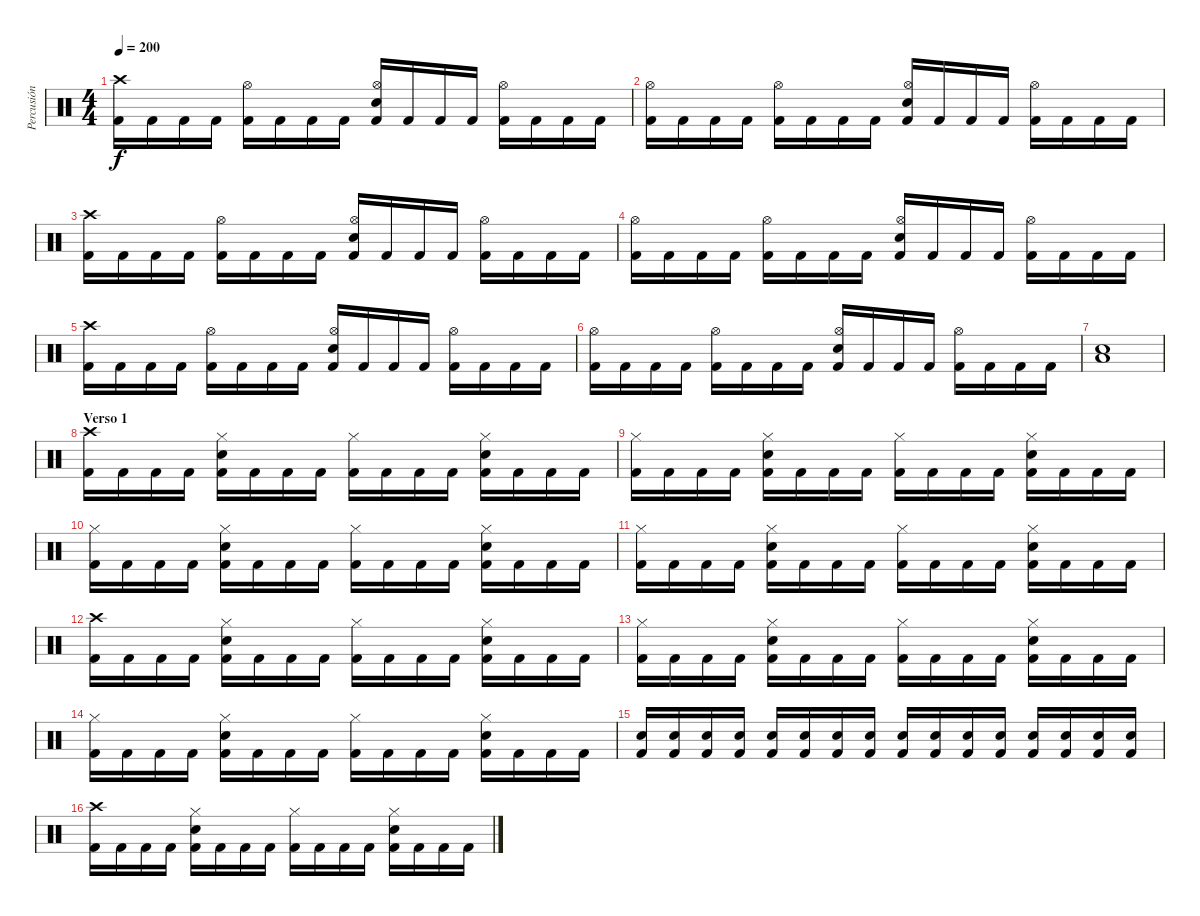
\track ("Percusión" "Percusión") {instrument percussion}
\staff {score}
\articulation defaults
\ts (4 4)
\tempo 200
\clef neutral
\ks c
("Kick (hit) 2" "Crash high (hit)").16{dy f} "Kick (hit) 2".16 "Kick (hit) 2".16 "Kick (hit) 2".16 ("Kick (hit) 2" "Hi-Hat (open)").16 "Kick (hit) 2".16 "Kick (hit) 2".16 "Kick (hit) 2".16 ("Kick (hit) 2" "Hi-Hat (open)" "Snare (hit) 2").16 "Kick (hit) 2".16 "Kick (hit) 2".16 "Kick (hit) 2".16 ("Kick (hit) 2" "Hi-Hat (open)").16 "Kick (hit) 2".16 "Kick (hit) 2".16 "Kick (hit) 2".16 |
("Kick (hit) 2" "Hi-Hat (open)").16 "Kick (hit) 2".16 "Kick (hit) 2".16 "Kick (hit) 2".16 ("Kick (hit) 2" "Hi-Hat (open)").16 "Kick (hit) 2".16 "Kick (hit) 2".16 "Kick (hit) 2".16 ("Kick (hit) 2" "Hi-Hat (open)" "Snare (hit) 2").16 "Kick (hit) 2".16 "Kick (hit) 2".16 "Kick (hit) 2".16 ("Kick (hit) 2" "Hi-Hat (open)").16 "Kick (hit) 2".16 "Kick (hit) 2".16 "Kick (hit) 2".16 |
("Kick (hit) 2" "Crash high (hit)").16 "Kick (hit) 2".16 "Kick (hit) 2".16 "Kick (hit) 2".16 ("Kick (hit) 2" "Hi-Hat (open)").16 "Kick (hit) 2".16 "Kick (hit) 2".16 "Kick (hit) 2".16 ("Kick (hit) 2" "Hi-Hat (open)" "Snare (hit) 2").16 "Kick (hit) 2".16 "Kick (hit) 2".16 "Kick (hit) 2".16 ("Kick (hit) 2" "Hi-Hat (open)").16 "Kick (hit) 2".16 "Kick (hit) 2".16 "Kick (hit) 2".16 |
("Kick (hit) 2" "Hi-Hat (open)").16 "Kick (hit) 2".16 "Kick (hit) 2".16 "Kick (hit) 2".16 ("Kick (hit) 2" "Hi-Hat (open)").16 "Kick (hit) 2".16 "Kick (hit) 2".16 "Kick (hit) 2".16 ("Kick (hit) 2" "Hi-Hat (open)" "Snare (hit) 2").16 "Kick (hit) 2".16 "Kick (hit) 2".16 "Kick (hit) 2".16 ("Kick (hit) 2" "Hi-Hat (open)").16 "Kick (hit) 2".16 "Kick (hit) 2".16 "Kick (hit) 2".16 |
("Kick (hit) 2" "Crash high (hit)").16 "Kick (hit) 2".16 "Kick (hit) 2".16 "Kick (hit) 2".16 ("Kick (hit) 2" "Hi-Hat (open)").16 "Kick (hit) 2".16 "Kick (hit) 2".16 "Kick (hit) 2".16 ("Kick (hit) 2" "Hi-Hat (open)" "Snare (hit) 2").16 "Kick (hit) 2".16 "Kick (hit) 2".16 "Kick (hit) 2".16 ("Kick (hit) 2" "Hi-Hat (open)").16 "Kick (hit) 2".16 "Kick (hit) 2".16 "Kick (hit) 2".16 |
("Kick (hit) 2" "Hi-Hat (open)").16 "Kick (hit) 2".16 "Kick (hit) 2".16 "Kick (hit) 2".16 ("Kick (hit) 2" "Hi-Hat (open)").16 "Kick (hit) 2".16 "Kick (hit) 2".16 "Kick (hit) 2".16 ("Kick (hit) 2" "Hi-Hat (open)" "Snare (hit) 2").16 "Kick (hit) 2".16 "Kick (hit) 2".16 "Kick (hit) 2".16 ("Kick (hit) 2" "Hi-Hat (open)").16 "Kick (hit) 2".16 "Kick (hit) 2".16 "Kick (hit) 2".16 |
("Snare (hit) 2" "Low Tom (hit)").1 |
\section ("" "Verso 1")
("Kick (hit) 2" "Crash high (hit)").16 "Kick (hit) 2".16 "Kick (hit) 2".16 "Kick (hit) 2".16 ("Kick (hit) 2" "Hi-Hat (closed)" "Snare (hit) 2").16 "Kick (hit) 2".16 "Kick (hit) 2".16 "Kick (hit) 2".16 ("Kick (hit) 2" "Hi-Hat (closed)").16 "Kick (hit) 2".16 "Kick (hit) 2".16 "Kick (hit) 2".16 ("Kick (hit) 2" "Hi-Hat (closed)" "Snare (hit) 2").16 "Kick (hit) 2".16 "Kick (hit) 2".16 "Kick (hit) 2".16 |
("Kick (hit) 2" "Hi-Hat (closed)").16 "Kick (hit) 2".16 "Kick (hit) 2".16 "Kick (hit) 2".16 ("Kick (hit) 2" "Hi-Hat (closed)" "Snare (hit) 2").16 "Kick (hit) 2".16 "Kick (hit) 2".16 "Kick (hit) 2".16 ("Kick (hit) 2" "Hi-Hat (closed)").16 "Kick (hit) 2".16 "Kick (hit) 2".16 "Kick (hit) 2".16 ("Kick (hit) 2" "Hi-Hat (closed)" "Snare (hit) 2").16 "Kick (hit) 2".16 "Kick (hit) 2".16 "Kick (hit) 2".16 |
("Kick (hit) 2" "Hi-Hat (closed)").16 "Kick (hit) 2".16 "Kick (hit) 2".16 "Kick (hit) 2".16 ("Kick (hit) 2" "Hi-Hat (closed)" "Snare (hit) 2").16 "Kick (hit) 2".16 "Kick (hit) 2".16 "Kick (hit) 2".16 ("Kick (hit) 2" "Hi-Hat (closed)").16 "Kick (hit) 2".16 "Kick (hit) 2".16 "Kick (hit) 2".16 ("Kick (hit) 2" "Hi-Hat (closed)" "Snare (hit) 2").16 "Kick (hit) 2".16 "Kick (hit) 2".16 "Kick (hit) 2".16 |
("Kick (hit) 2" "Hi-Hat (closed)").16 "Kick (hit) 2".16 "Kick (hit) 2".16 "Kick (hit) 2".16 ("Kick (hit) 2" "Hi-Hat (closed)" "Snare (hit) 2").16 "Kick (hit) 2".16 "Kick (hit) 2".16 "Kick (hit) 2".16 ("Kick (hit) 2" "Hi-Hat (closed)").16 "Kick (hit) 2".16 "Kick (hit) 2".16 "Kick (hit) 2".16 ("Kick (hit) 2" "Hi-Hat (closed)" "Snare (hit) 2").16 "Kick (hit) 2".16 "Kick (hit) 2".16 "Kick (hit) 2".16 |
("Kick (hit) 2" "Crash high (hit)").16 "Kick (hit) 2".16 "Kick (hit) 2".16 "Kick (hit) 2".16 ("Kick (hit) 2" "Hi-Hat (closed)" "Snare (hit) 2").16 "Kick (hit) 2".16 "Kick (hit) 2".16 "Kick (hit) 2".16 ("Kick (hit) 2" "Hi-Hat (closed)").16 "Kick (hit) 2".16 "Kick (hit) 2".16 "Kick (hit) 2".16 ("Kick (hit) 2" "Hi-Hat (closed)" "Snare (hit) 2").16 "Kick (hit) 2".16 "Kick (hit) 2".16 "Kick (hit) 2".16 |
("Kick (hit) 2" "Hi-Hat (closed)").16 "Kick (hit) 2".16 "Kick (hit) 2".16 "Kick (hit) 2".16 ("Kick (hit) 2" "Hi-Hat (closed)" "Snare (hit) 2").16 "Kick (hit) 2".16 "Kick (hit) 2".16 "Kick (hit) 2".16 ("Kick (hit) 2" "Hi-Hat (closed)").16 "Kick (hit) 2".16 "Kick (hit) 2".16 "Kick (hit) 2".16 ("Kick (hit) 2" "Hi-Hat (closed)" "Snare (hit) 2").16 "Kick (hit) 2".16 "Kick (hit) 2".16 "Kick (hit) 2".16 |
("Kick (hit) 2" "Hi-Hat (closed)").16 "Kick (hit) 2".16 "Kick (hit) 2".16 "Kick (hit) 2".16 ("Kick (hit) 2" "Hi-Hat (closed)" "Snare (hit) 2").16 "Kick (hit) 2".16 "Kick (hit) 2".16 "Kick (hit) 2".16 ("Kick (hit) 2" "Hi-Hat (closed)").16 "Kick (hit) 2".16 "Kick (hit) 2".16 "Kick (hit) 2".16 ("Kick (hit) 2" "Hi-Hat (closed)" "Snare (hit) 2").16 "Kick (hit) 2".16 "Kick (hit) 2".16 "Kick (hit) 2".16 |
("Snare (hit) 2" "Kick (hit) 2").16 ("Snare (hit) 2" "Kick (hit) 2").16 ("Snare (hit) 2" "Kick (hit) 2").16 ("Snare (hit) 2" "Kick (hit) 2").16 ("Snare (hit) 2" "Kick (hit) 2").16 ("Snare (hit) 2" "Kick (hit) 2").16 ("Snare (hit) 2" "Kick (hit) 2").16 ("Snare (hit) 2" "Kick (hit) 2").16 ("Snare (hit) 2" "Kick (hit) 2").16 ("Snare (hit) 2" "Kick (hit) 2").16 ("Snare (hit) 2" "Kick (hit) 2").16 ("Snare (hit) 2" "Kick (hit) 2").16 ("Snare (hit) 2" "Kick (hit) 2").16 ("Snare (hit) 2" "Kick (hit) 2").16 ("Snare (hit) 2" "Kick (hit) 2").16 ("Snare (hit) 2" "Kick (hit) 2").16 |
("Kick (hit) 2" "Crash high (hit)").16 "Kick (hit) 2".16 "Kick (hit) 2".16 "Kick (hit) 2".16 ("Kick (hit) 2" "Hi-Hat (closed)" "Snare (hit) 2").16 "Kick (hit) 2".16 "Kick (hit) 2".16 "Kick (hit) 2".16 ("Kick (hit) 2" "Hi-Hat (closed)").16 "Kick (hit) 2".16 "Kick (hit) 2".16 "Kick (hit) 2".16 ("Kick (hit) 2" "Hi-Hat (closed)" "Snare (hit) 2").16 "Kick (hit) 2".16 "Kick (hit) 2".16 "Kick (hit) 2".16
